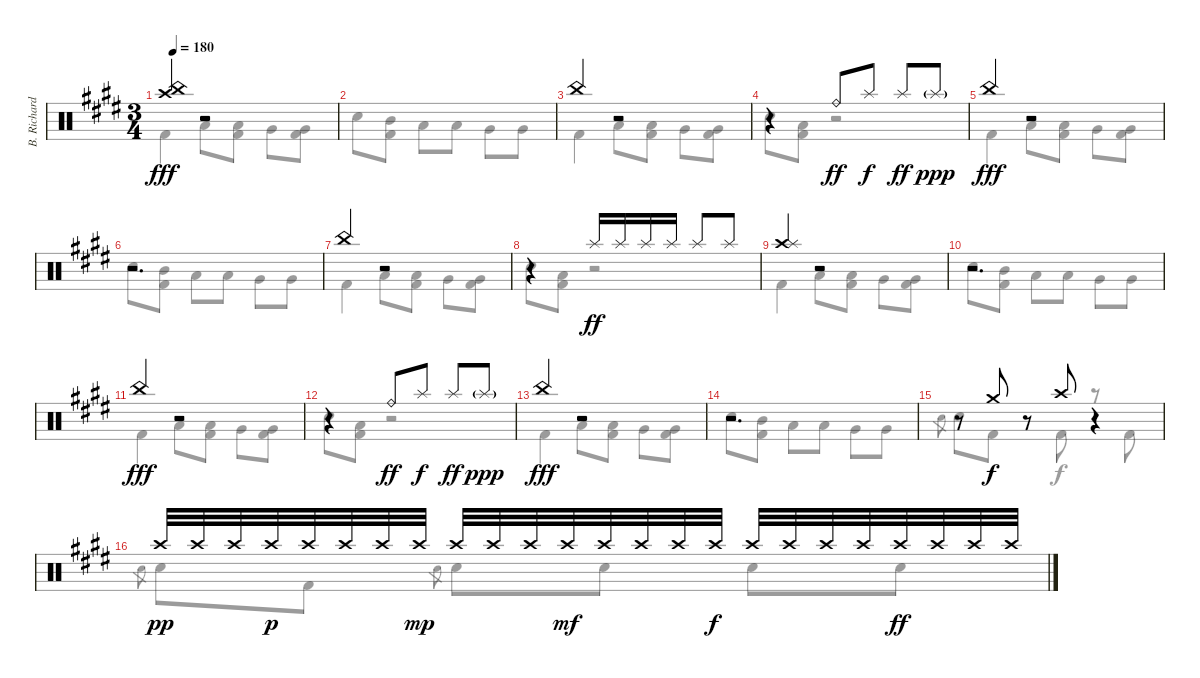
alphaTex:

\track ("B. Richardson Drums" "B. Richard") {instrument percussion}
\staff {score}
\articulation defaults
\voice
\ts (3 4)
\tempo 180
\clef neutral
\ks c#minor
("Crash high (hit)" "China (hit)").4{dy fff} r.2 |
|
"China (hit)".4 r.2 |
r.4 "Ride (bell)".8{dy ff} "Splash (hit)".8{dy f} "Splash (hit)".8{dy ff} "Splash (hit)"{g}.8{dy ppp} |
"China (hit)".4{dy fff} r.2 |
r.2{d} |
"China (hit)".4 r.2 |
r.4 "Splash (hit)".16{dy ff} "Splash (hit)".16 "Splash (hit)".16 "Splash (hit)".16 "Splash (hit)".8 "Splash (hit)".8 |
("Crash high (hit)" "Splash (hit)").4 r.2 |
r.2{d} |
"China (hit)".4{dy fff} r.2 |
r.4 "Ride (bell)".8{dy ff} "Splash (hit)".8{dy f} "Splash (hit)".8{dy ff} "Splash (hit)"{g}.8{dy ppp} |
"China (hit)".4{dy fff} r.2 |
r.2{d} |
r.8 "Crash medium (hit)".8{dy f} r.8 "Crash high (hit)".8 r.4 |
"Crash high (hit)".32{dy pp} "Crash high (hit)".32 "Crash high (hit)".32 "Crash high (hit)".32{dy p} "Crash high (hit)".32 "Crash high (hit)".32 "Crash high (hit)".32 "Crash high (hit)".32{dy mp} "Crash high (hit)".32 "Crash high (hit)".32 "Crash high (hit)".32 "Crash high (hit)".32{dy mf} "Crash high (hit)".32 "Crash high (hit)".32 "Crash high (hit)".32 "Crash high (hit)".32{dy f} "Crash high (hit)".32 "Crash high (hit)".32 "Crash high (hit)".32 "Crash high (hit)".32 "Crash high (hit)".32{dy ff} "Crash high (hit)".32 "Crash high (hit)".32 "Crash high (hit)".32
\voice
\clef neutral
\ottava regular
\simile none
\ks c#minor "Kick (hit) 2".4{dy fff} "Low Tom (hit)".8
("Low Tom (hit)" "Kick (hit) 2").8 "Very Low Tom (hit)".8 ("Very Low Tom (hit)" "Kick (hit) 2").8 |
"Electric Snare (hit)".8 ("Mid Tom (hit)" "Kick (hit) 2").8 "Low Tom (hit)".8 "Low Tom (hit)".8 "Very Low Tom (hit)".8 "Very Low Tom (hit)".8 |
"Kick (hit) 2".4 "Low Tom (hit)".8 ("Low Tom (hit)" "Kick (hit) 2").8 "Very Low Tom (hit)".8 ("Very Low Tom (hit)" "Kick (hit) 2").8 |
"Electric Snare (hit)".8 ("Low Tom (hit)" "Kick (hit) 2").8 r.2 |
"Kick (hit) 2".4 "Low Tom (hit)".8 ("Low Tom (hit)" "Kick (hit) 2").8 "Very Low Tom (hit)".8 ("Very Low Tom (hit)" "Kick (hit) 2").8 |
"Electric Snare (hit)".8 ("Mid Tom (hit)" "Kick (hit) 2").8 "Low Tom (hit)".8 "Low Tom (hit)".8 "Very Low Tom (hit)".8 "Very Low Tom (hit)".8 |
"Kick (hit) 2".4 "Low Tom (hit)".8 ("Low Tom (hit)" "Kick (hit) 2").8 "Very Low Tom (hit)".8 ("Very Low Tom (hit)" "Kick (hit) 2").8 |
"Electric Snare (hit)".8 ("Low Tom (hit)" "Kick (hit) 2").8 r.2 |
"Kick (hit) 2".4 "Low Tom (hit)".8 ("Low Tom (hit)" "Kick (hit) 2").8 "Very Low Tom (hit)".8 ("Very Low Tom (hit)" "Kick (hit) 2").8 |
"Electric Snare (hit)".8 ("Mid Tom (hit)" "Kick (hit) 2").8 "Low Tom (hit)".8 "Low Tom (hit)".8 "Very Low Tom (hit)".8 "Very Low Tom (hit)".8 |
"Kick (hit) 2".4 "Low Tom (hit)".8 ("Low Tom (hit)" "Kick (hit) 2").8 "Very Low Tom (hit)".8 ("Very Low Tom (hit)" "Kick (hit) 2").8 |
"Electric Snare (hit)".8 ("Low Tom (hit)" "Kick (hit) 2").8 r.2 |
"Kick (hit) 2".4 "Low Tom (hit)".8 ("Low Tom (hit)" "Kick (hit) 2").8 "Very Low Tom (hit)".8 ("Very Low Tom (hit)" "Kick (hit) 2").8 |
"Electric Snare (hit)".8 ("Mid Tom (hit)" "Kick (hit) 2").8 "Low Tom (hit)".8 "Low Tom (hit)".8 "Very Low Tom (hit)".8 "Very Low Tom (hit)".8 |
"Electric Snare (hit)".8{gr} "Electric Snare (hit)".8 "Kick (hit) 2".8 r.8 "Kick (hit) 2".8{dy f} r.8 "Kick (hit) 2".8 |
"Electric Snare (hit)".8{gr} "Electric Snare (hit)".8 "Kick (hit) 2".8 "Electric Snare (hit)".8{gr} "Electric Snare (hit)".8 "Electric Snare (hit)".8 "Electric Snare (hit)".8 "Electric Snare (hit)".8
